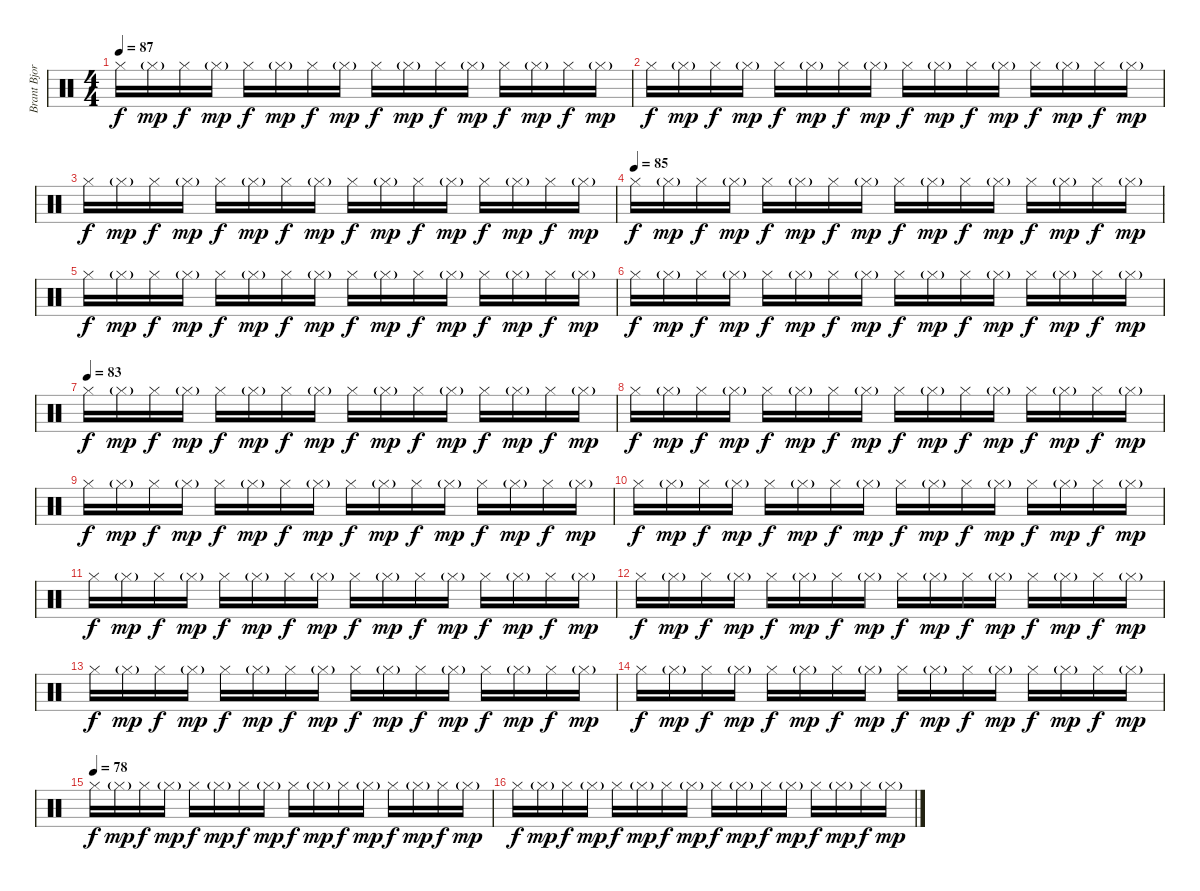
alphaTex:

\track ("Brant Bjork" "Brant Bjor") {instrument percussion}
\staff {score}
\articulation defaults
\ts (4 4)
\tempo 87
\clef neutral
\ks c "Hi-Hat (closed)".16{dy f} "Hi-Hat (closed)"{g}.16{dy mp} "Hi-Hat (closed)".16{dy f} "Hi-Hat (closed)"{g}.16{dy mp} "Hi-Hat (closed)".16{dy f} "Hi-Hat (closed)"{g}.16{dy mp} "Hi-Hat (closed)".16{dy f} "Hi-Hat (closed)"{g}.16{dy mp} "Hi-Hat (closed)".16{dy f} "Hi-Hat (closed)"{g}.16{dy mp} "Hi-Hat (closed)".16{dy f} "Hi-Hat (closed)"{g}.16{dy mp} "Hi-Hat (closed)".16{dy f} "Hi-Hat (closed)"{g}.16{dy mp} "Hi-Hat (closed)".16{dy f} "Hi-Hat (closed)"{g}.16{dy mp}
|
"Hi-Hat (closed)".16{dy f} "Hi-Hat (closed)"{g}.16{dy mp} "Hi-Hat (closed)".16{dy f} "Hi-Hat (closed)"{g}.16{dy mp} "Hi-Hat (closed)".16{dy f} "Hi-Hat (closed)"{g}.16{dy mp} "Hi-Hat (closed)".16{dy f} "Hi-Hat (closed)"{g}.16{dy mp} "Hi-Hat (closed)".16{dy f} "Hi-Hat (closed)"{g}.16{dy mp} "Hi-Hat (closed)".16{dy f} "Hi-Hat (closed)"{g}.16{dy mp} "Hi-Hat (closed)".16{dy f} "Hi-Hat (closed)"{g}.16{dy mp} "Hi-Hat (closed)".16{dy f} "Hi-Hat (closed)"{g}.16{dy mp} |
"Hi-Hat (closed)".16{dy f} "Hi-Hat (closed)"{g}.16{dy mp} "Hi-Hat (closed)".16{dy f} "Hi-Hat (closed)"{g}.16{dy mp} "Hi-Hat (closed)".16{dy f} "Hi-Hat (closed)"{g}.16{dy mp} "Hi-Hat (closed)".16{dy f} "Hi-Hat (closed)"{g}.16{dy mp} "Hi-Hat (closed)".16{dy f} "Hi-Hat (closed)"{g}.16{dy mp} "Hi-Hat (closed)".16{dy f} "Hi-Hat (closed)"{g}.16{dy mp} "Hi-Hat (closed)".16{dy f} "Hi-Hat (closed)"{g}.16{dy mp} "Hi-Hat (closed)".16{dy f} "Hi-Hat (closed)"{g}.16{dy mp} |
\tempo (85)
"Hi-Hat (closed)".16{dy f} "Hi-Hat (closed)"{g}.16{dy mp} "Hi-Hat (closed)".16{dy f} "Hi-Hat (closed)"{g}.16{dy mp} "Hi-Hat (closed)".16{dy f} "Hi-Hat (closed)"{g}.16{dy mp} "Hi-Hat (closed)".16{dy f} "Hi-Hat (closed)"{g}.16{dy mp} "Hi-Hat (closed)".16{dy f} "Hi-Hat (closed)"{g}.16{dy mp} "Hi-Hat (closed)".16{dy f} "Hi-Hat (closed)"{g}.16{dy mp} "Hi-Hat (closed)".16{dy f} "Hi-Hat (closed)"{g}.16{dy mp} "Hi-Hat (closed)".16{dy f} "Hi-Hat (closed)"{g}.16{dy mp} |
"Hi-Hat (closed)".16{dy f} "Hi-Hat (closed)"{g}.16{dy mp} "Hi-Hat (closed)".16{dy f} "Hi-Hat (closed)"{g}.16{dy mp} "Hi-Hat (closed)".16{dy f} "Hi-Hat (closed)"{g}.16{dy mp} "Hi-Hat (closed)".16{dy f} "Hi-Hat (closed)"{g}.16{dy mp} "Hi-Hat (closed)".16{dy f} "Hi-Hat (closed)"{g}.16{dy mp} "Hi-Hat (closed)".16{dy f} "Hi-Hat (closed)"{g}.16{dy mp} "Hi-Hat (closed)".16{dy f} "Hi-Hat (closed)"{g}.16{dy mp} "Hi-Hat (closed)".16{dy f} "Hi-Hat (closed)"{g}.16{dy mp} |
"Hi-Hat (closed)".16{dy f} "Hi-Hat (closed)"{g}.16{dy mp} "Hi-Hat (closed)".16{dy f} "Hi-Hat (closed)"{g}.16{dy mp} "Hi-Hat (closed)".16{dy f} "Hi-Hat (closed)"{g}.16{dy mp} "Hi-Hat (closed)".16{dy f} "Hi-Hat (closed)"{g}.16{dy mp} "Hi-Hat (closed)".16{dy f} "Hi-Hat (closed)"{g}.16{dy mp} "Hi-Hat (closed)".16{dy f} "Hi-Hat (closed)"{g}.16{dy mp} "Hi-Hat (closed)".16{dy f} "Hi-Hat (closed)"{g}.16{dy mp} "Hi-Hat (closed)".16{dy f} "Hi-Hat (closed)"{g}.16{dy mp} |
\tempo (83)
"Hi-Hat (closed)".16{dy f} "Hi-Hat (closed)"{g}.16{dy mp} "Hi-Hat (closed)".16{dy f} "Hi-Hat (closed)"{g}.16{dy mp} "Hi-Hat (closed)".16{dy f} "Hi-Hat (closed)"{g}.16{dy mp} "Hi-Hat (closed)".16{dy f} "Hi-Hat (closed)"{g}.16{dy mp} "Hi-Hat (closed)".16{dy f} "Hi-Hat (closed)"{g}.16{dy mp} "Hi-Hat (closed)".16{dy f} "Hi-Hat (closed)"{g}.16{dy mp} "Hi-Hat (closed)".16{dy f} "Hi-Hat (closed)"{g}.16{dy mp} "Hi-Hat (closed)".16{dy f} "Hi-Hat (closed)"{g}.16{dy mp} |
"Hi-Hat (closed)".16{dy f} "Hi-Hat (closed)"{g}.16{dy mp} "Hi-Hat (closed)".16{dy f} "Hi-Hat (closed)"{g}.16{dy mp} "Hi-Hat (closed)".16{dy f} "Hi-Hat (closed)"{g}.16{dy mp} "Hi-Hat (closed)".16{dy f} "Hi-Hat (closed)"{g}.16{dy mp} "Hi-Hat (closed)".16{dy f} "Hi-Hat (closed)"{g}.16{dy mp} "Hi-Hat (closed)".16{dy f} "Hi-Hat (closed)"{g}.16{dy mp} "Hi-Hat (closed)".16{dy f} "Hi-Hat (closed)"{g}.16{dy mp} "Hi-Hat (closed)".16{dy f} "Hi-Hat (closed)"{g}.16{dy mp} |
"Hi-Hat (closed)".16{dy f} "Hi-Hat (closed)"{g}.16{dy mp} "Hi-Hat (closed)".16{dy f} "Hi-Hat (closed)"{g}.16{dy mp} "Hi-Hat (closed)".16{dy f} "Hi-Hat (closed)"{g}.16{dy mp} "Hi-Hat (closed)".16{dy f} "Hi-Hat (closed)"{g}.16{dy mp} "Hi-Hat (closed)".16{dy f} "Hi-Hat (closed)"{g}.16{dy mp} "Hi-Hat (closed)".16{dy f} "Hi-Hat (closed)"{g}.16{dy mp} "Hi-Hat (closed)".16{dy f} "Hi-Hat (closed)"{g}.16{dy mp} "Hi-Hat (closed)".16{dy f} "Hi-Hat (closed)"{g}.16{dy mp} |
"Hi-Hat (closed)".16{dy f} "Hi-Hat (closed)"{g}.16{dy mp} "Hi-Hat (closed)".16{dy f} "Hi-Hat (closed)"{g}.16{dy mp} "Hi-Hat (closed)".16{dy f} "Hi-Hat (closed)"{g}.16{dy mp} "Hi-Hat (closed)".16{dy f} "Hi-Hat (closed)"{g}.16{dy mp} "Hi-Hat (closed)".16{dy f} "Hi-Hat (closed)"{g}.16{dy mp} "Hi-Hat (closed)".16{dy f} "Hi-Hat (closed)"{g}.16{dy mp} "Hi-Hat (closed)".16{dy f} "Hi-Hat (closed)"{g}.16{dy mp} "Hi-Hat (closed)".16{dy f} "Hi-Hat (closed)"{g}.16{dy mp} |
"Hi-Hat (closed)".16{dy f} "Hi-Hat (closed)"{g}.16{dy mp} "Hi-Hat (closed)".16{dy f} "Hi-Hat (closed)"{g}.16{dy mp} "Hi-Hat (closed)".16{dy f} "Hi-Hat (closed)"{g}.16{dy mp} "Hi-Hat (closed)".16{dy f} "Hi-Hat (closed)"{g}.16{dy mp} "Hi-Hat (closed)".16{dy f} "Hi-Hat (closed)"{g}.16{dy mp} "Hi-Hat (closed)".16{dy f} "Hi-Hat (closed)"{g}.16{dy mp} "Hi-Hat (closed)".16{dy f} "Hi-Hat (closed)"{g}.16{dy mp} "Hi-Hat (closed)".16{dy f} "Hi-Hat (closed)"{g}.16{dy mp} |
"Hi-Hat (closed)".16{dy f} "Hi-Hat (closed)"{g}.16{dy mp} "Hi-Hat (closed)".16{dy f} "Hi-Hat (closed)"{g}.16{dy mp} "Hi-Hat (closed)".16{dy f} "Hi-Hat (closed)"{g}.16{dy mp} "Hi-Hat (closed)".16{dy f} "Hi-Hat (closed)"{g}.16{dy mp} "Hi-Hat (closed)".16{dy f} "Hi-Hat (closed)"{g}.16{dy mp} "Hi-Hat (closed)".16{dy f} "Hi-Hat (closed)"{g}.16{dy mp} "Hi-Hat (closed)".16{dy f} "Hi-Hat (closed)"{g}.16{dy mp} "Hi-Hat (closed)".16{dy f} "Hi-Hat (closed)"{g}.16{dy mp} |
"Hi-Hat (closed)".16{dy f} "Hi-Hat (closed)"{g}.16{dy mp} "Hi-Hat (closed)".16{dy f} "Hi-Hat (closed)"{g}.16{dy mp} "Hi-Hat (closed)".16{dy f} "Hi-Hat (closed)"{g}.16{dy mp} "Hi-Hat (closed)".16{dy f} "Hi-Hat (closed)"{g}.16{dy mp} "Hi-Hat (closed)".16{dy f} "Hi-Hat (closed)"{g}.16{dy mp} "Hi-Hat (closed)".16{dy f} "Hi-Hat (closed)"{g}.16{dy mp} "Hi-Hat (closed)".16{dy f} "Hi-Hat (closed)"{g}.16{dy mp} "Hi-Hat (closed)".16{dy f} "Hi-Hat (closed)"{g}.16{dy mp} |
"Hi-Hat (closed)".16{dy f} "Hi-Hat (closed)"{g}.16{dy mp} "Hi-Hat (closed)".16{dy f} "Hi-Hat (closed)"{g}.16{dy mp} "Hi-Hat (closed)".16{dy f} "Hi-Hat (closed)"{g}.16{dy mp} "Hi-Hat (closed)".16{dy f} "Hi-Hat (closed)"{g}.16{dy mp} "Hi-Hat (closed)".16{dy f} "Hi-Hat (closed)"{g}.16{dy mp} "Hi-Hat (closed)".16{dy f} "Hi-Hat (closed)"{g}.16{dy mp} "Hi-Hat (closed)".16{dy f} "Hi-Hat (closed)"{g}.16{dy mp} "Hi-Hat (closed)".16{dy f} "Hi-Hat (closed)"{g}.16{dy mp} |
\tempo (78)
"Hi-Hat (closed)".16{dy f} "Hi-Hat (closed)"{g}.16{dy mp} "Hi-Hat (closed)".16{dy f} "Hi-Hat (closed)"{g}.16{dy mp} "Hi-Hat (closed)".16{dy f} "Hi-Hat (closed)"{g}.16{dy mp} "Hi-Hat (closed)".16{dy f} "Hi-Hat (closed)"{g}.16{dy mp} "Hi-Hat (closed)".16{dy f} "Hi-Hat (closed)"{g}.16{dy mp} "Hi-Hat (closed)".16{dy f} "Hi-Hat (closed)"{g}.16{dy mp} "Hi-Hat (closed)".16{dy f} "Hi-Hat (closed)"{g}.16{dy mp} "Hi-Hat (closed)".16{dy f} "Hi-Hat (closed)"{g}.16{dy mp} |
"Hi-Hat (closed)".16{dy f} "Hi-Hat (closed)"{g}.16{dy mp} "Hi-Hat (closed)".16{dy f} "Hi-Hat (closed)"{g}.16{dy mp} "Hi-Hat (closed)".16{dy f} "Hi-Hat (closed)"{g}.16{dy mp} "Hi-Hat (closed)".16{dy f} "Hi-Hat (closed)"{g}.16{dy mp} "Hi-Hat (closed)".16{dy f} "Hi-Hat (closed)"{g}.16{dy mp} "Hi-Hat (closed)".16{dy f} "Hi-Hat (closed)"{g}.16{dy mp} "Hi-Hat (closed)".16{dy f} "Hi-Hat (closed)"{g}.16{dy mp} "Hi-Hat (closed)".16{dy f} "Hi-Hat (closed)"{g}.16{dy mp}
